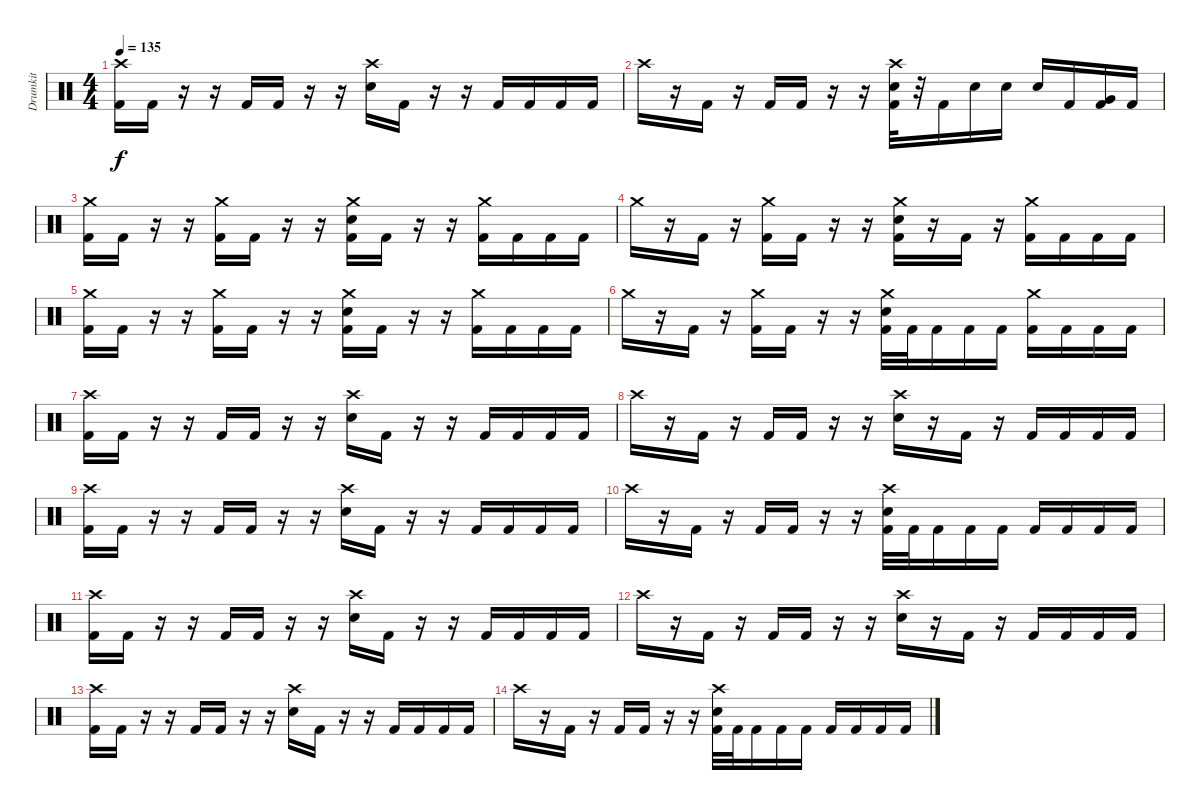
\track ("Drumkit" "Drumkit") {instrument percussion}
\staff {score}
\articulation defaults
\ts (4 4)
\tempo 135
\clef neutral
\ks c
("Crash high (hit)" "Kick (hit) 2").16{dy f} "Kick (hit) 2".16 r.16 r.16 "Kick (hit) 2".16 "Kick (hit) 2".16 r.16 r.16 ("Crash high (hit)" "Electric Snare (hit)").16 "Kick (hit) 2".16 r.16 r.16 "Kick (hit) 2".16 "Kick (hit) 2".16 "Kick (hit) 2".16 "Kick (hit) 2".16 |
"Crash high (hit)".16 r.16 "Kick (hit) 2".16 r.16 "Kick (hit) 2".16 "Kick (hit) 2".16 r.16 r.16 ("Crash high (hit)" "Electric Snare (hit)" "Kick (hit) 2").32 r.32 "Kick (hit) 2".16 "Electric Snare (hit)".16 "Electric Snare (hit)".16 "Electric Snare (hit)".16 "Kick (hit) 2".16 ("Very Low Tom (hit)" "Kick (hit) 2").16 "Kick (hit) 2".16 |
("Crash medium (hit)" "Kick (hit) 2").16 "Kick (hit) 2".16 r.16 r.16 ("Crash medium (hit)" "Kick (hit) 2").16 "Kick (hit) 2".16 r.16 r.16 ("Crash medium (hit)" "Electric Snare (hit)" "Kick (hit) 2").16 "Kick (hit) 2".16 r.16 r.16 ("Crash medium (hit)" "Kick (hit) 2").16 "Kick (hit) 2".16 "Kick (hit) 2".16 "Kick (hit) 2".16 |
"Crash medium (hit)".16 r.16 "Kick (hit) 2".16 r.16 ("Crash medium (hit)" "Kick (hit) 2").16 "Kick (hit) 2".16 r.16 r.16 ("Crash medium (hit)" "Electric Snare (hit)" "Kick (hit) 2").16 r.16 "Kick (hit) 2".16 r.16 ("Crash medium (hit)" "Kick (hit) 2").16 "Kick (hit) 2".16 "Kick (hit) 2".16 "Kick (hit) 2".16 |
("Crash medium (hit)" "Kick (hit) 2").16 "Kick (hit) 2".16 r.16 r.16 ("Crash medium (hit)" "Kick (hit) 2").16 "Kick (hit) 2".16 r.16 r.16 ("Crash medium (hit)" "Electric Snare (hit)" "Kick (hit) 2").16 "Kick (hit) 2".16 r.16 r.16 ("Crash medium (hit)" "Kick (hit) 2").16 "Kick (hit) 2".16 "Kick (hit) 2".16 "Kick (hit) 2".16 |
"Crash medium (hit)".16 r.16 "Kick (hit) 2".16 r.16 ("Crash medium (hit)" "Kick (hit) 2").16 "Kick (hit) 2".16 r.16 r.16 ("Crash medium (hit)" "Electric Snare (hit)" "Kick (hit) 2").32 "Kick (hit) 2".32 "Kick (hit) 2".16 "Kick (hit) 2".16 "Kick (hit) 2".16 ("Crash medium (hit)" "Kick (hit) 2").16 "Kick (hit) 2".16 "Kick (hit) 2".16 "Kick (hit) 2".16 |
("Crash high (hit)" "Kick (hit) 2").16 "Kick (hit) 2".16 r.16 r.16 "Kick (hit) 2".16 "Kick (hit) 2".16 r.16 r.16 ("Crash high (hit)" "Electric Snare (hit)").16 "Kick (hit) 2".16 r.16 r.16 "Kick (hit) 2".16 "Kick (hit) 2".16 "Kick (hit) 2".16 "Kick (hit) 2".16 |
"Crash high (hit)".16 r.16 "Kick (hit) 2".16 r.16 "Kick (hit) 2".16 "Kick (hit) 2".16 r.16 r.16 ("Crash high (hit)" "Electric Snare (hit)").16 r.16 "Kick (hit) 2".16 r.16 "Kick (hit) 2".16 "Kick (hit) 2".16 "Kick (hit) 2".16 "Kick (hit) 2".16 |
("Crash high (hit)" "Kick (hit) 2").16 "Kick (hit) 2".16 r.16 r.16 "Kick (hit) 2".16 "Kick (hit) 2".16 r.16 r.16 ("Crash high (hit)" "Electric Snare (hit)").16 "Kick (hit) 2".16 r.16 r.16 "Kick (hit) 2".16 "Kick (hit) 2".16 "Kick (hit) 2".16 "Kick (hit) 2".16 |
"Crash high (hit)".16 r.16 "Kick (hit) 2".16 r.16 "Kick (hit) 2".16 "Kick (hit) 2".16 r.16 r.16 ("Crash high (hit)" "Electric Snare (hit)" "Kick (hit) 2").32 "Kick (hit) 2".32 "Kick (hit) 2".16 "Kick (hit) 2".16 "Kick (hit) 2".16 "Kick (hit) 2".16 "Kick (hit) 2".16 "Kick (hit) 2".16 "Kick (hit) 2".16 |
("Crash high (hit)" "Kick (hit) 2").16 "Kick (hit) 2".16 r.16 r.16 "Kick (hit) 2".16 "Kick (hit) 2".16 r.16 r.16 ("Crash high (hit)" "Electric Snare (hit)").16 "Kick (hit) 2".16 r.16 r.16 "Kick (hit) 2".16 "Kick (hit) 2".16 "Kick (hit) 2".16 "Kick (hit) 2".16 |
"Crash high (hit)".16 r.16 "Kick (hit) 2".16 r.16 "Kick (hit) 2".16 "Kick (hit) 2".16 r.16 r.16 ("Crash high (hit)" "Electric Snare (hit)").16 r.16 "Kick (hit) 2".16 r.16 "Kick (hit) 2".16 "Kick (hit) 2".16 "Kick (hit) 2".16 "Kick (hit) 2".16 |
("Crash high (hit)" "Kick (hit) 2").16 "Kick (hit) 2".16 r.16 r.16 "Kick (hit) 2".16 "Kick (hit) 2".16 r.16 r.16 ("Crash high (hit)" "Electric Snare (hit)").16 "Kick (hit) 2".16 r.16 r.16 "Kick (hit) 2".16 "Kick (hit) 2".16 "Kick (hit) 2".16 "Kick (hit) 2".16 |
"Crash high (hit)".16 r.16 "Kick (hit) 2".16 r.16 "Kick (hit) 2".16 "Kick (hit) 2".16 r.16 r.16 ("Crash high (hit)" "Electric Snare (hit)" "Kick (hit) 2").32 "Kick (hit) 2".32 "Kick (hit) 2".16 "Kick (hit) 2".16 "Kick (hit) 2".16 "Kick (hit) 2".16 "Kick (hit) 2".16 "Kick (hit) 2".16 "Kick (hit) 2".16
